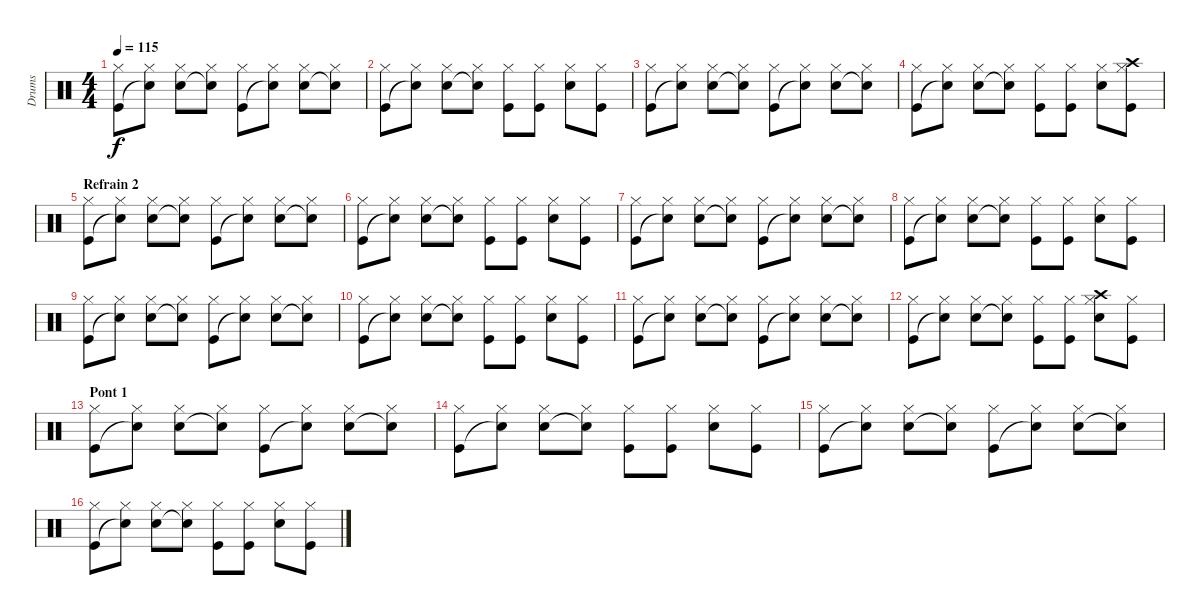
\track ("Drums" "Drums") {instrument percussion}
\staff {score}
\articulation defaults
\ts (4 4)
\tempo 115
\clef neutral
\ks c
("Hi-Hat (closed)" "Kick (hit)").8{dy f} ("Hi-Hat (closed)" "Snare (hit)"{t}).8 ("Hi-Hat (closed)" "Snare (hit) 2").8 ("Hi-Hat (closed)" "Snare (hit)"{t}).8 ("Hi-Hat (closed)" "Kick (hit)").8 ("Hi-Hat (closed)" "Snare (hit)"{t}).8 ("Hi-Hat (closed)" "Snare (hit) 2").8 ("Hi-Hat (closed)" "Snare (hit)"{t}).8 |
("Hi-Hat (closed)" "Kick (hit)").8 ("Hi-Hat (closed)" "Snare (hit)"{t}).8 ("Hi-Hat (closed)" "Snare (hit) 2").8 ("Hi-Hat (closed)" "Snare (hit)"{t}).8 ("Hi-Hat (closed)" "Kick (hit)").8 ("Hi-Hat (closed)" "Kick (hit)").8 ("Hi-Hat (closed)" "Snare (hit) 2").8 ("Hi-Hat (closed)" "Kick (hit)").8 |
("Hi-Hat (closed)" "Kick (hit)").8 ("Hi-Hat (closed)" "Snare (hit)"{t}).8 ("Hi-Hat (closed)" "Snare (hit) 2").8 ("Hi-Hat (closed)" "Snare (hit)"{t}).8 ("Hi-Hat (closed)" "Kick (hit)").8 ("Hi-Hat (closed)" "Snare (hit)"{t}).8 ("Hi-Hat (closed)" "Snare (hit) 2").8 ("Hi-Hat (closed)" "Snare (hit)"{t}).8 |
("Hi-Hat (closed)" "Kick (hit)").8 ("Hi-Hat (closed)" "Snare (hit)"{t}).8 ("Hi-Hat (closed)" "Snare (hit) 2").8 ("Hi-Hat (closed)" "Snare (hit)"{t}).8 ("Hi-Hat (closed)" "Kick (hit)").8 ("Hi-Hat (closed)" "Kick (hit)").8 ("Hi-Hat (closed)" "Snare (hit) 2").8 ("Hi-Hat (closed)" "Crash high (hit)" "Kick (hit)").8 |
\section ("" "Refrain 2")
("Hi-Hat (closed)" "Kick (hit)").8 ("Hi-Hat (closed)" "Snare (hit)"{t}).8 ("Hi-Hat (closed)" "Snare (hit) 2").8 ("Hi-Hat (closed)" "Snare (hit)"{t}).8 ("Hi-Hat (closed)" "Kick (hit)").8 ("Hi-Hat (closed)" "Snare (hit)"{t}).8 ("Hi-Hat (closed)" "Snare (hit) 2").8 ("Hi-Hat (closed)" "Snare (hit)"{t}).8 |
("Hi-Hat (closed)" "Kick (hit)").8 ("Hi-Hat (closed)" "Snare (hit)"{t}).8 ("Hi-Hat (closed)" "Snare (hit) 2").8 ("Hi-Hat (closed)" "Snare (hit)"{t}).8 ("Hi-Hat (closed)" "Kick (hit)").8 ("Hi-Hat (closed)" "Kick (hit)").8 ("Hi-Hat (closed)" "Snare (hit) 2").8 ("Hi-Hat (closed)" "Kick (hit)").8 |
("Hi-Hat (closed)" "Kick (hit)").8 ("Hi-Hat (closed)" "Snare (hit)"{t}).8 ("Hi-Hat (closed)" "Snare (hit) 2").8 ("Hi-Hat (closed)" "Snare (hit)"{t}).8 ("Hi-Hat (closed)" "Kick (hit)").8 ("Hi-Hat (closed)" "Snare (hit)"{t}).8 ("Hi-Hat (closed)" "Snare (hit) 2").8 ("Hi-Hat (closed)" "Snare (hit)"{t}).8 |
("Hi-Hat (closed)" "Kick (hit)").8 ("Hi-Hat (closed)" "Snare (hit)"{t}).8 ("Hi-Hat (closed)" "Snare (hit) 2").8 ("Hi-Hat (closed)" "Snare (hit)"{t}).8 ("Hi-Hat (closed)" "Kick (hit)").8 ("Hi-Hat (closed)" "Kick (hit)").8 ("Hi-Hat (closed)" "Snare (hit) 2").8 ("Hi-Hat (closed)" "Kick (hit)").8 |
("Hi-Hat (closed)" "Kick (hit)").8 ("Hi-Hat (closed)" "Snare (hit)"{t}).8 ("Hi-Hat (closed)" "Snare (hit) 2").8 ("Hi-Hat (closed)" "Snare (hit)"{t}).8 ("Hi-Hat (closed)" "Kick (hit)").8 ("Hi-Hat (closed)" "Snare (hit)"{t}).8 ("Hi-Hat (closed)" "Snare (hit) 2").8 ("Hi-Hat (closed)" "Snare (hit)"{t}).8 |
("Hi-Hat (closed)" "Kick (hit)").8 ("Hi-Hat (closed)" "Snare (hit)"{t}).8 ("Hi-Hat (closed)" "Snare (hit) 2").8 ("Hi-Hat (closed)" "Snare (hit)"{t}).8 ("Hi-Hat (closed)" "Kick (hit)").8 ("Hi-Hat (closed)" "Kick (hit)").8 ("Hi-Hat (closed)" "Snare (hit) 2").8 ("Hi-Hat (closed)" "Kick (hit)").8 |
("Hi-Hat (closed)" "Kick (hit)").8 ("Hi-Hat (closed)" "Snare (hit)"{t}).8 ("Hi-Hat (closed)" "Snare (hit) 2").8 ("Hi-Hat (closed)" "Snare (hit)"{t}).8 ("Hi-Hat (closed)" "Kick (hit)").8 ("Hi-Hat (closed)" "Snare (hit)"{t}).8 ("Hi-Hat (closed)" "Snare (hit) 2").8 ("Hi-Hat (closed)" "Snare (hit)"{t}).8 |
("Hi-Hat (closed)" "Kick (hit)").8 ("Hi-Hat (closed)" "Snare (hit)"{t}).8 ("Hi-Hat (closed)" "Snare (hit) 2").8 ("Hi-Hat (closed)" "Snare (hit)"{t}).8 ("Hi-Hat (closed)" "Kick (hit)").8 ("Hi-Hat (closed)" "Kick (hit)").8 ("Hi-Hat (closed)" "Crash high (hit)" "Snare (hit) 2").8 ("Hi-Hat (closed)" "Kick (hit)").8 |
\section ("" "Pont 1")
("Hi-Hat (closed)" "Kick (hit)").8 ("Hi-Hat (closed)" "Snare (hit)"{t}).8 ("Hi-Hat (closed)" "Snare (hit) 2").8 ("Hi-Hat (closed)" "Snare (hit)"{t}).8 ("Hi-Hat (closed)" "Kick (hit)").8 ("Hi-Hat (closed)" "Snare (hit)"{t}).8 ("Hi-Hat (closed)" "Snare (hit) 2").8 ("Hi-Hat (closed)" "Snare (hit)"{t}).8 |
("Hi-Hat (closed)" "Kick (hit)").8 ("Hi-Hat (closed)" "Snare (hit)"{t}).8 ("Hi-Hat (closed)" "Snare (hit) 2").8 ("Hi-Hat (closed)" "Snare (hit)"{t}).8 ("Hi-Hat (closed)" "Kick (hit)").8 ("Hi-Hat (closed)" "Kick (hit)").8 ("Hi-Hat (closed)" "Snare (hit) 2").8 ("Hi-Hat (closed)" "Kick (hit)").8 |
("Hi-Hat (closed)" "Kick (hit)").8 ("Hi-Hat (closed)" "Snare (hit)"{t}).8 ("Hi-Hat (closed)" "Snare (hit) 2").8 ("Hi-Hat (closed)" "Snare (hit)"{t}).8 ("Hi-Hat (closed)" "Kick (hit)").8 ("Hi-Hat (closed)" "Snare (hit)"{t}).8 ("Hi-Hat (closed)" "Snare (hit) 2").8 ("Hi-Hat (closed)" "Snare (hit)"{t}).8 |
("Hi-Hat (closed)" "Kick (hit)").8 ("Hi-Hat (closed)" "Snare (hit)"{t}).8 ("Hi-Hat (closed)" "Snare (hit) 2").8 ("Hi-Hat (closed)" "Snare (hit)"{t}).8 ("Hi-Hat (closed)" "Kick (hit)").8 ("Hi-Hat (closed)" "Kick (hit)").8 ("Hi-Hat (closed)" "Snare (hit) 2").8 ("Hi-Hat (closed)" "Kick (hit)").8
